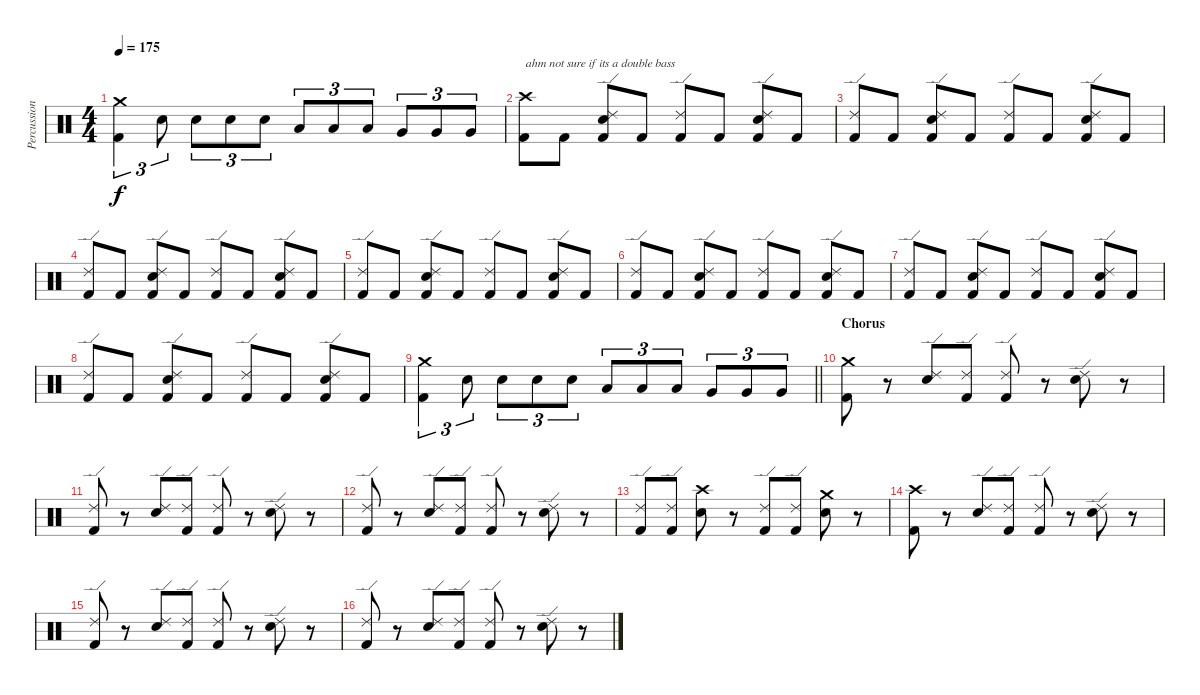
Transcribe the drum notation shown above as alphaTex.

\track ("Percussion" "Percussion") {instrument percussion}
\staff {score}
\articulation defaults
\ts (4 4)
\section ("" "")
\tempo 175
\clef neutral
\ks c
("Crash medium (hit)" "Kick (hit) 2").4{tu (3 2) dy f} "Electric Snare (hit)".8{tu (3 2)} "Electric Snare (hit)".8{tu (3 2)} "Electric Snare (hit)".8{tu (3 2)} "Electric Snare (hit)".8{tu (3 2)} "Low Tom (hit)".8{tu (3 2)} "Low Tom (hit)".8{tu (3 2)} "Low Tom (hit)".8{tu (3 2)} "Very Low Tom (hit)".8{tu (3 2)} "Very Low Tom (hit)".8{tu (3 2)} "Very Low Tom (hit)".8{tu (3 2)} |
("Crash high (hit)" "Kick (hit) 2").8{txt "ahm not sure if its a double bass"} "Kick (hit) 2".8 ("Ride (edge) 2" "Electric Snare (hit)" "Kick (hit) 2").8 "Kick (hit) 2".8 ("Ride (edge) 2" "Kick (hit) 2").8 "Kick (hit) 2".8 ("Ride (edge) 2" "Electric Snare (hit)" "Kick (hit) 2").8 "Kick (hit) 2".8 |
("Ride (edge) 2" "Kick (hit) 2").8 "Kick (hit) 2".8 ("Ride (edge) 2" "Electric Snare (hit)" "Kick (hit) 2").8 "Kick (hit) 2".8 ("Ride (edge) 2" "Kick (hit) 2").8 "Kick (hit) 2".8 ("Ride (edge) 2" "Electric Snare (hit)" "Kick (hit) 2").8 "Kick (hit) 2".8 |
("Ride (edge) 2" "Kick (hit) 2").8 "Kick (hit) 2".8 ("Ride (edge) 2" "Electric Snare (hit)" "Kick (hit) 2").8 "Kick (hit) 2".8 ("Ride (edge) 2" "Kick (hit) 2").8 "Kick (hit) 2".8 ("Ride (edge) 2" "Electric Snare (hit)" "Kick (hit) 2").8 "Kick (hit) 2".8 |
("Ride (edge) 2" "Kick (hit) 2").8 "Kick (hit) 2".8 ("Ride (edge) 2" "Electric Snare (hit)" "Kick (hit) 2").8 "Kick (hit) 2".8 ("Ride (edge) 2" "Kick (hit) 2").8 "Kick (hit) 2".8 ("Ride (edge) 2" "Electric Snare (hit)" "Kick (hit) 2").8 "Kick (hit) 2".8 |
("Ride (edge) 2" "Kick (hit) 2").8 "Kick (hit) 2".8 ("Ride (edge) 2" "Electric Snare (hit)" "Kick (hit) 2").8 "Kick (hit) 2".8 ("Ride (edge) 2" "Kick (hit) 2").8 "Kick (hit) 2".8 ("Ride (edge) 2" "Electric Snare (hit)" "Kick (hit) 2").8 "Kick (hit) 2".8 |
("Ride (edge) 2" "Kick (hit) 2").8 "Kick (hit) 2".8 ("Ride (edge) 2" "Electric Snare (hit)" "Kick (hit) 2").8 "Kick (hit) 2".8 ("Ride (edge) 2" "Kick (hit) 2").8 "Kick (hit) 2".8 ("Ride (edge) 2" "Electric Snare (hit)" "Kick (hit) 2").8 "Kick (hit) 2".8 |
("Ride (edge) 2" "Kick (hit) 2").8 "Kick (hit) 2".8 ("Ride (edge) 2" "Electric Snare (hit)" "Kick (hit) 2").8 "Kick (hit) 2".8 ("Ride (edge) 2" "Kick (hit) 2").8 "Kick (hit) 2".8 ("Ride (edge) 2" "Electric Snare (hit)" "Kick (hit) 2").8 "Kick (hit) 2".8 |
\barLineRight lightlight
("Crash medium (hit)" "Kick (hit) 2").4{tu (3 2)} "Electric Snare (hit)".8{tu (3 2)} "Electric Snare (hit)".8{tu (3 2)} "Electric Snare (hit)".8{tu (3 2)} "Electric Snare (hit)".8{tu (3 2)} "Low Tom (hit)".8{tu (3 2)} "Low Tom (hit)".8{tu (3 2)} "Low Tom (hit)".8{tu (3 2)} "Very Low Tom (hit)".8{tu (3 2)} "Very Low Tom (hit)".8{tu (3 2)} "Very Low Tom (hit)".8{tu (3 2)} |
\section ("" "Chorus")
("Crash medium (hit)" "Kick (hit) 2").8 r.8 ("Ride (edge) 2" "Electric Snare (hit)").8 ("Ride (edge) 2" "Kick (hit) 2").8 ("Ride (edge) 2" "Kick (hit) 2").8 r.8 ("Ride (edge) 2" "Electric Snare (hit)").8 r.8 |
("Ride (edge) 2" "Kick (hit) 2").8 r.8 ("Ride (edge) 2" "Electric Snare (hit)").8 ("Ride (edge) 2" "Kick (hit) 2").8 ("Ride (edge) 2" "Kick (hit) 2").8 r.8 ("Ride (edge) 2" "Electric Snare (hit)").8 r.8 |
("Ride (edge) 2" "Kick (hit) 2").8 r.8 ("Ride (edge) 2" "Electric Snare (hit)").8 ("Ride (edge) 2" "Kick (hit) 2").8 ("Ride (edge) 2" "Kick (hit) 2").8 r.8 ("Ride (edge) 2" "Electric Snare (hit)").8 r.8 |
("Ride (edge) 2" "Kick (hit) 2").8 ("Ride (edge) 2" "Kick (hit) 2").8 ("Crash high (hit)" "Electric Snare (hit)").8 r.8 ("Ride (edge) 2" "Kick (hit) 2").8 ("Ride (edge) 2" "Kick (hit) 2").8 ("Crash medium (hit)" "Electric Snare (hit)").8 r.8 |
("Crash high (hit)" "Kick (hit) 2").8 r.8 ("Ride (edge) 2" "Electric Snare (hit)").8 ("Ride (edge) 2" "Kick (hit) 2").8 ("Ride (edge) 2" "Kick (hit) 2").8 r.8 ("Ride (edge) 2" "Electric Snare (hit)").8 r.8 |
("Ride (edge) 2" "Kick (hit) 2").8 r.8 ("Ride (edge) 2" "Electric Snare (hit)").8 ("Ride (edge) 2" "Kick (hit) 2").8 ("Ride (edge) 2" "Kick (hit) 2").8 r.8 ("Ride (edge) 2" "Electric Snare (hit)").8 r.8 |
("Ride (edge) 2" "Kick (hit) 2").8 r.8 ("Ride (edge) 2" "Electric Snare (hit)").8 ("Ride (edge) 2" "Kick (hit) 2").8 ("Ride (edge) 2" "Kick (hit) 2").8 r.8 ("Ride (edge) 2" "Electric Snare (hit)").8 r.8
